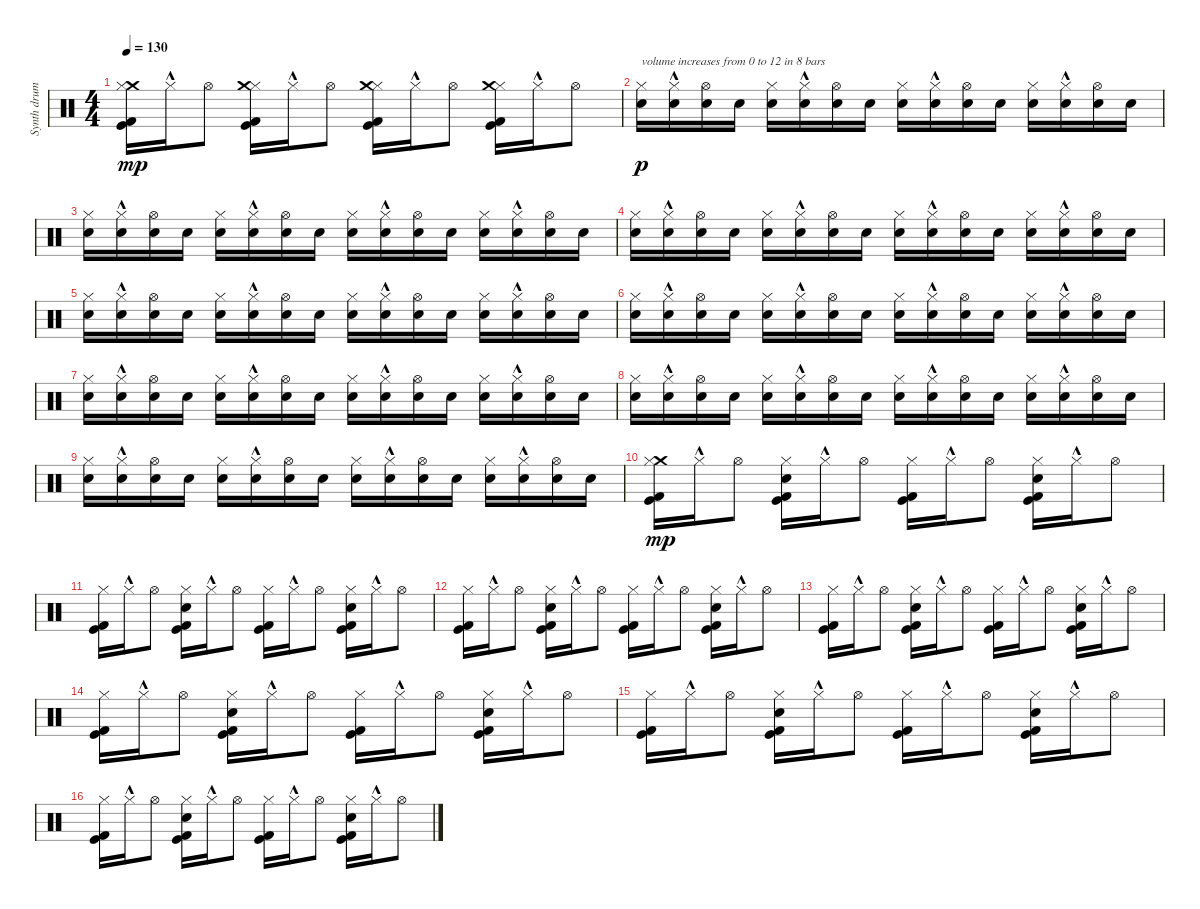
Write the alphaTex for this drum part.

\track ("Synth drums" "Synth drum") {instrument percussion}
\staff {score}
\articulation defaults
\ts (4 4)
\tempo 130
\clef neutral
\ks c
("Crash medium (hit)" "Kick (hit)" "Kick (hit) 2" "Hi-Hat (closed)").16{dy mp} "Hi-Hat (closed)"{hac}.16 "Hi-Hat (open)".8 ("Hi-Hat (closed)" "Kick (hit) 2" "Kick (hit)" "Crash medium (hit)").16 "Hi-Hat (closed)"{hac}.16 "Hi-Hat (open)".8 ("Hi-Hat (closed)" "Kick (hit) 2" "Kick (hit)" "Crash medium (hit)").16 "Hi-Hat (closed)"{hac}.16 "Hi-Hat (open)".8 ("Hi-Hat (closed)" "Kick (hit) 2" "Kick (hit)" "Crash medium (hit)").16 "Hi-Hat (closed)"{hac}.16 "Hi-Hat (open)".8 |
("Snare (hit) 2" "Hi-Hat (closed)").16{txt "volume increases from 0 to 12 in 8 bars" dy p volume 0 balance 0} ("Snare (hit) 2" "Hi-Hat (closed)"{hac}).16{balance 0} ("Snare (hit) 2" "Hi-Hat (open)").16{volume 0 balance 0} "Snare (hit) 2".16{volume 0 balance 1} ("Hi-Hat (closed)" "Snare (hit) 2").16{volume 0 balance 1} ("Hi-Hat (closed)"{hac} "Snare (hit) 2").16{balance 1} ("Hi-Hat (open)" "Snare (hit) 2").16{volume 0 balance 2} "Snare (hit) 2".16{volume 1 balance 2} ("Hi-Hat (closed)" "Snare (hit) 2").16{volume 1 balance 2} ("Hi-Hat (closed)"{hac} "Snare (hit) 2").16{balance 2} ("Hi-Hat (open)" "Snare (hit) 2").16{volume 1 balance 2} "Snare (hit) 2".16{volume 1 balance 3} ("Hi-Hat (closed)" "Snare (hit) 2").16{volume 1 balance 3} ("Hi-Hat (closed)"{hac} "Snare (hit) 2").16{volume 1 balance 3} ("Hi-Hat (open)" "Snare (hit) 2").16{balance 4} "Snare (hit) 2".16{volume 1 balance 4} |
("Snare (hit) 2" "Hi-Hat (closed)").16{volume 2 balance 4} ("Snare (hit) 2" "Hi-Hat (closed)"{hac}).16{volume 2 balance 4} ("Snare (hit) 2" "Hi-Hat (open)").16{balance 4} "Snare (hit) 2".16{volume 2 balance 5} ("Hi-Hat (closed)" "Snare (hit) 2").16{volume 2 balance 5} ("Hi-Hat (closed)"{hac} "Snare (hit) 2").16{volume 2 balance 5} ("Hi-Hat (open)" "Snare (hit) 2").16{volume 2 balance 6} "Snare (hit) 2".16{balance 6} ("Hi-Hat (closed)" "Snare (hit) 2").16{volume 2 balance 6} ("Hi-Hat (closed)"{hac} "Snare (hit) 2").16{volume 2 balance 6} ("Hi-Hat (open)" "Snare (hit) 2").16{volume 2 balance 6} "Snare (hit) 2".16{balance 7} ("Hi-Hat (closed)" "Snare (hit) 2").16{volume 3 balance 7} ("Hi-Hat (closed)"{hac} "Snare (hit) 2").16{volume 3 balance 7} ("Hi-Hat (open)" "Snare (hit) 2").16{volume 3 balance 8} "Snare (hit) 2".16{balance 8} |
("Snare (hit) 2" "Hi-Hat (closed)").16{volume 3 balance 8} ("Snare (hit) 2" "Hi-Hat (closed)"{hac}).16{volume 3 balance 8} ("Snare (hit) 2" "Hi-Hat (open)").16{volume 3 balance 8} "Snare (hit) 2".16{volume 3 balance 9} ("Hi-Hat (closed)" "Snare (hit) 2").16{balance 9} ("Hi-Hat (closed)"{hac} "Snare (hit) 2").16{volume 4 balance 9} ("Hi-Hat (open)" "Snare (hit) 2").16{volume 4 balance 10} "Snare (hit) 2".16{volume 4 balance 10} ("Hi-Hat (closed)" "Snare (hit) 2").16{balance 10} ("Hi-Hat (closed)"{hac} "Snare (hit) 2").16{volume 4 balance 10} ("Hi-Hat (open)" "Snare (hit) 2").16{volume 4 balance 10} "Snare (hit) 2".16{volume 4 balance 11} ("Hi-Hat (closed)" "Snare (hit) 2").16{volume 4 balance 11} ("Hi-Hat (closed)"{hac} "Snare (hit) 2").16{balance 11} ("Hi-Hat (open)" "Snare (hit) 2").16{volume 4 balance 11} "Snare (hit) 2".16{volume 4 balance 12} |
("Snare (hit) 2" "Hi-Hat (closed)").16{volume 5 balance 12} ("Snare (hit) 2" "Hi-Hat (closed)"{hac}).16{balance 12} ("Snare (hit) 2" "Hi-Hat (open)").16{volume 5 balance 12} "Snare (hit) 2".16{volume 5 balance 13} ("Hi-Hat (closed)" "Snare (hit) 2").16{volume 5 balance 13} ("Hi-Hat (closed)"{hac} "Snare (hit) 2").16{balance 13} ("Hi-Hat (open)" "Snare (hit) 2").16{volume 5 balance 13} "Snare (hit) 2".16{volume 5 balance 14} ("Hi-Hat (closed)" "Snare (hit) 2").16{volume 5 balance 14} ("Hi-Hat (closed)"{hac} "Snare (hit) 2").16{volume 6 balance 14} ("Hi-Hat (open)" "Snare (hit) 2").16{balance 14} "Snare (hit) 2".16{volume 6 balance 15} ("Hi-Hat (closed)" "Snare (hit) 2").16{volume 6 balance 15} ("Hi-Hat (closed)"{hac} "Snare (hit) 2").16{volume 6 balance 15} ("Hi-Hat (open)" "Snare (hit) 2").16{balance 15} "Snare (hit) 2".16{volume 6 balance 16} |
("Snare (hit) 2" "Hi-Hat (closed)").16{volume 6 balance 16} ("Snare (hit) 2" "Hi-Hat (closed)"{hac}).16{volume 6 balance 16} ("Snare (hit) 2" "Hi-Hat (open)").16{volume 6 balance 15} "Snare (hit) 2".16{balance 15} ("Hi-Hat (closed)" "Snare (hit) 2").16{volume 6 balance 15} ("Hi-Hat (closed)"{hac} "Snare (hit) 2").16{volume 7 balance 15} ("Hi-Hat (open)" "Snare (hit) 2").16{volume 7 balance 14} "Snare (hit) 2".16{balance 14} ("Hi-Hat (closed)" "Snare (hit) 2").16{volume 7 balance 14} ("Hi-Hat (closed)"{hac} "Snare (hit) 2").16{volume 7 balance 14} ("Hi-Hat (open)" "Snare (hit) 2").16{volume 7 balance 13} "Snare (hit) 2".16{volume 7 balance 13} ("Hi-Hat (closed)" "Snare (hit) 2").16{balance 13} ("Hi-Hat (closed)"{hac} "Snare (hit) 2").16{volume 7 balance 13} ("Hi-Hat (open)" "Snare (hit) 2").16{volume 8 balance 12} "Snare (hit) 2".16{volume 8 balance 12} |
("Snare (hit) 2" "Hi-Hat (closed)").16{balance 12} ("Snare (hit) 2" "Hi-Hat (closed)"{hac}).16{volume 8 balance 12} ("Snare (hit) 2" "Hi-Hat (open)").16{volume 8 balance 11} "Snare (hit) 2".16{volume 8 balance 11} ("Hi-Hat (closed)" "Snare (hit) 2").16{balance 11} ("Hi-Hat (closed)"{hac} "Snare (hit) 2").16{volume 8 balance 11} ("Hi-Hat (open)" "Snare (hit) 2").16{volume 8 balance 10} "Snare (hit) 2".16{volume 8 balance 10} ("Hi-Hat (closed)" "Snare (hit) 2").16{volume 8 balance 10} ("Hi-Hat (closed)"{hac} "Snare (hit) 2").16{balance 10} ("Hi-Hat (open)" "Snare (hit) 2").16{volume 9 balance 9} "Snare (hit) 2".16{volume 9 balance 9} ("Hi-Hat (closed)" "Snare (hit) 2").16{volume 9 balance 9} ("Hi-Hat (closed)"{hac} "Snare (hit) 2").16{balance 9} ("Hi-Hat (open)" "Snare (hit) 2").16{volume 9 balance 8} "Snare (hit) 2".16{volume 9 balance 8} |
("Snare (hit) 2" "Hi-Hat (closed)").16{volume 9 balance 8} ("Snare (hit) 2" "Hi-Hat (closed)"{hac}).16{volume 9 balance 8} ("Snare (hit) 2" "Hi-Hat (open)").16{balance 7} "Snare (hit) 2".16{volume 10 balance 7} ("Hi-Hat (closed)" "Snare (hit) 2").16{volume 10 balance 7} ("Hi-Hat (closed)"{hac} "Snare (hit) 2").16{volume 10 balance 7} ("Hi-Hat (open)" "Snare (hit) 2").16{balance 6} "Snare (hit) 2".16{volume 10 balance 6} ("Hi-Hat (closed)" "Snare (hit) 2").16{volume 10 balance 6} ("Hi-Hat (closed)"{hac} "Snare (hit) 2").16{volume 10 balance 6} ("Hi-Hat (open)" "Snare (hit) 2").16{balance 5} "Snare (hit) 2".16{volume 10 balance 5} ("Hi-Hat (closed)" "Snare (hit) 2").16{volume 10 balance 5} ("Hi-Hat (closed)"{hac} "Snare (hit) 2").16{volume 10 balance 5} ("Hi-Hat (open)" "Snare (hit) 2").16{volume 11 balance 4} "Snare (hit) 2".16{balance 4} |
("Snare (hit) 2" "Hi-Hat (closed)").16{volume 11 balance 4} ("Snare (hit) 2" "Hi-Hat (closed)"{hac}).16{volume 11 balance 4} ("Snare (hit) 2" "Hi-Hat (open)").16{volume 11 balance 3} "Snare (hit) 2".16{balance 3} ("Hi-Hat (closed)" "Snare (hit) 2").16{volume 11 balance 3} ("Hi-Hat (closed)"{hac} "Snare (hit) 2").16{volume 11 balance 3} ("Hi-Hat (open)" "Snare (hit) 2").16{volume 11 balance 2} "Snare (hit) 2".16{volume 12 balance 2} ("Hi-Hat (closed)" "Snare (hit) 2").16{balance 2} ("Hi-Hat (closed)"{hac} "Snare (hit) 2").16{volume 12 balance 2} ("Hi-Hat (open)" "Snare (hit) 2").16{volume 12 balance 1} "Snare (hit) 2".16{volume 12 balance 1} ("Hi-Hat (closed)" "Snare (hit) 2").16{balance 1} ("Hi-Hat (closed)"{hac} "Snare (hit) 2").16{volume 12 balance 1} ("Hi-Hat (open)" "Snare (hit) 2").16{volume 12 balance 0} "Snare (hit) 2".16{volume 12 balance 0} |
("Crash medium (hit)" "Kick (hit)" "Kick (hit) 2" "Hi-Hat (closed)").16{dy mp} "Hi-Hat (closed)"{hac}.16 "Hi-Hat (open)".8 ("Hand Clap (hit)" "Kick (hit)" "Kick (hit) 2" "Hi-Hat (closed)").16 "Hi-Hat (closed)"{hac}.16 "Hi-Hat (open)".8 ("Kick (hit)" "Kick (hit) 2" "Hi-Hat (closed)").16 "Hi-Hat (closed)"{hac}.16 "Hi-Hat (open)".8 ("Hand Clap (hit)" "Kick (hit)" "Kick (hit) 2" "Hi-Hat (closed)").16 "Hi-Hat (closed)"{hac}.16 "Hi-Hat (open)".8 |
("Kick (hit)" "Kick (hit) 2" "Hi-Hat (closed)").16 "Hi-Hat (closed)"{hac}.16 "Hi-Hat (open)".8 ("Hand Clap (hit)" "Kick (hit)" "Kick (hit) 2" "Hi-Hat (closed)").16 "Hi-Hat (closed)"{hac}.16 "Hi-Hat (open)".8 ("Kick (hit)" "Kick (hit) 2" "Hi-Hat (closed)").16 "Hi-Hat (closed)"{hac}.16 "Hi-Hat (open)".8 ("Hand Clap (hit)" "Kick (hit)" "Kick (hit) 2" "Hi-Hat (closed)").16 "Hi-Hat (closed)"{hac}.16 "Hi-Hat (open)".8 |
("Kick (hit)" "Kick (hit) 2" "Hi-Hat (closed)").16 "Hi-Hat (closed)"{hac}.16 "Hi-Hat (open)".8 ("Hand Clap (hit)" "Kick (hit)" "Kick (hit) 2" "Hi-Hat (closed)").16 "Hi-Hat (closed)"{hac}.16 "Hi-Hat (open)".8 ("Kick (hit)" "Kick (hit) 2" "Hi-Hat (closed)").16 "Hi-Hat (closed)"{hac}.16 "Hi-Hat (open)".8 ("Hand Clap (hit)" "Kick (hit)" "Kick (hit) 2" "Hi-Hat (closed)").16 "Hi-Hat (closed)"{hac}.16 "Hi-Hat (open)".8 |
("Kick (hit)" "Kick (hit) 2" "Hi-Hat (closed)").16 "Hi-Hat (closed)"{hac}.16 "Hi-Hat (open)".8 ("Hand Clap (hit)" "Kick (hit)" "Kick (hit) 2" "Hi-Hat (closed)").16 "Hi-Hat (closed)"{hac}.16 "Hi-Hat (open)".8 ("Kick (hit)" "Kick (hit) 2" "Hi-Hat (closed)").16 "Hi-Hat (closed)"{hac}.16 "Hi-Hat (open)".8 ("Hand Clap (hit)" "Kick (hit)" "Kick (hit) 2" "Hi-Hat (closed)").16 "Hi-Hat (closed)"{hac}.16 "Hi-Hat (open)".8 |
("Kick (hit)" "Kick (hit) 2" "Hi-Hat (closed)").16 "Hi-Hat (closed)"{hac}.16 "Hi-Hat (open)".8 ("Hand Clap (hit)" "Kick (hit)" "Kick (hit) 2" "Hi-Hat (closed)").16 "Hi-Hat (closed)"{hac}.16 "Hi-Hat (open)".8 ("Kick (hit)" "Kick (hit) 2" "Hi-Hat (closed)").16 "Hi-Hat (closed)"{hac}.16 "Hi-Hat (open)".8 ("Hand Clap (hit)" "Kick (hit)" "Kick (hit) 2" "Hi-Hat (closed)").16 "Hi-Hat (closed)"{hac}.16 "Hi-Hat (open)".8 |
("Kick (hit)" "Kick (hit) 2" "Hi-Hat (closed)").16 "Hi-Hat (closed)"{hac}.16 "Hi-Hat (open)".8 ("Hand Clap (hit)" "Kick (hit)" "Kick (hit) 2" "Hi-Hat (closed)").16 "Hi-Hat (closed)"{hac}.16 "Hi-Hat (open)".8 ("Kick (hit)" "Kick (hit) 2" "Hi-Hat (closed)").16 "Hi-Hat (closed)"{hac}.16 "Hi-Hat (open)".8 ("Hand Clap (hit)" "Kick (hit)" "Kick (hit) 2" "Hi-Hat (closed)").16 "Hi-Hat (closed)"{hac}.16 "Hi-Hat (open)".8 |
("Kick (hit)" "Kick (hit) 2" "Hi-Hat (closed)").16 "Hi-Hat (closed)"{hac}.16 "Hi-Hat (open)".8 ("Hand Clap (hit)" "Kick (hit)" "Kick (hit) 2" "Hi-Hat (closed)").16 "Hi-Hat (closed)"{hac}.16 "Hi-Hat (open)".8 ("Kick (hit)" "Kick (hit) 2" "Hi-Hat (closed)").16 "Hi-Hat (closed)"{hac}.16 "Hi-Hat (open)".8 ("Hand Clap (hit)" "Kick (hit)" "Kick (hit) 2" "Hi-Hat (closed)").16 "Hi-Hat (closed)"{hac}.16 "Hi-Hat (open)".8
